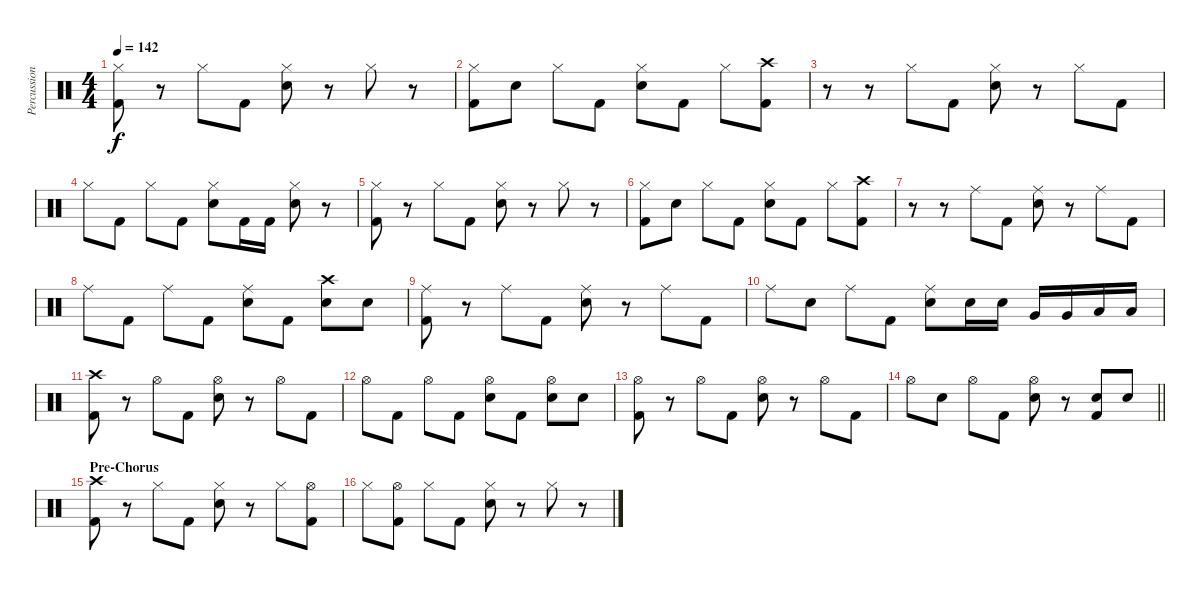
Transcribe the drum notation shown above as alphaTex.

\track ("Percussion" "Percussion") {instrument percussion}
\staff {score}
\articulation defaults
\ts (4 4)
\tempo 142
\clef neutral
\ks c
("Hi-Hat (closed)" "Kick (hit) 2").8{dy f} r.8 "Hi-Hat (closed)".8 "Kick (hit) 2".8 ("Hi-Hat (closed)" "Snare (hit) 2").8 r.8 "Hi-Hat (closed)".8 r.8 |
("Hi-Hat (closed)" "Kick (hit) 2").8 "Snare (hit) 2".8 "Hi-Hat (closed)".8 "Kick (hit) 2".8 ("Hi-Hat (closed)" "Snare (hit) 2").8 "Kick (hit) 2".8 "Hi-Hat (closed)".8 ("Crash high (hit)" "Kick (hit) 2").8 |
r.8 r.8 "Hi-Hat (closed)".8 "Kick (hit) 2".8 ("Hi-Hat (closed)" "Snare (hit) 2").8 r.8 "Hi-Hat (closed)".8 "Kick (hit) 2".8 |
"Hi-Hat (closed)".8 "Kick (hit) 2".8 "Hi-Hat (closed)".8 "Kick (hit) 2".8 ("Hi-Hat (closed)" "Snare (hit) 2").8 "Kick (hit) 2".16 "Kick (hit) 2".16 ("Hi-Hat (closed)" "Snare (hit) 2").8 r.8 |
("Hi-Hat (closed)" "Kick (hit) 2").8 r.8 "Hi-Hat (closed)".8 "Kick (hit) 2".8 ("Hi-Hat (closed)" "Snare (hit) 2").8 r.8 "Hi-Hat (closed)".8 r.8 |
("Hi-Hat (closed)" "Kick (hit) 2").8 "Snare (hit) 2".8 "Hi-Hat (closed)".8 "Kick (hit) 2".8 ("Hi-Hat (closed)" "Snare (hit) 2").8 "Kick (hit) 2".8 "Hi-Hat (closed)".8 ("Crash high (hit)" "Kick (hit) 2").8 |
r.8 r.8 "Ride (middle)".8 "Kick (hit) 2".8 ("Ride (middle)" "Snare (hit) 2").8 r.8 "Ride (middle)".8 "Kick (hit) 2".8 |
"Ride (middle)".8 "Kick (hit) 2".8 "Ride (middle)".8 "Kick (hit) 2".8 ("Ride (middle)" "Snare (hit) 2").8 "Kick (hit) 2".8 ("Crash high (hit)" "Snare (hit) 2").8 "Snare (hit) 2".8 |
("Ride (middle)" "Kick (hit) 2").8 r.8 "Ride (middle)".8 "Kick (hit) 2".8 ("Ride (middle)" "Snare (hit) 2").8 r.8 "Ride (middle)".8 "Kick (hit) 2".8 |
"Ride (middle)".8 "Snare (hit) 2".8 "Ride (middle)".8 "Kick (hit) 2".8 ("Ride (middle)" "Snare (hit) 2").8 "Snare (hit) 2".16 "Snare (hit) 2".16 "Very Low Tom (hit)".16 "Very Low Tom (hit)".16 "Low Floor Tom (hit)".16 "Low Floor Tom (hit)".16 |
("Crash high (hit)" "Kick (hit) 2").8 r.8 "Hi-Hat (open)".8 "Kick (hit) 2".8 ("Hi-Hat (open)" "Snare (hit) 2").8 r.8 "Hi-Hat (open)".8 "Kick (hit) 2".8 |
"Hi-Hat (open)".8 "Kick (hit) 2".8 "Hi-Hat (open)".8 "Kick (hit) 2".8 ("Hi-Hat (open)" "Snare (hit) 2").8 "Kick (hit) 2".8 ("Hi-Hat (open)" "Snare (hit) 2").8 "Snare (hit) 2".8 |
("Hi-Hat (open)" "Kick (hit) 2").8 r.8 "Hi-Hat (open)".8 "Kick (hit) 2".8 ("Hi-Hat (open)" "Snare (hit) 2").8 r.8 "Hi-Hat (open)".8 "Kick (hit) 2".8 |
\barLineRight lightlight "Hi-Hat (open)".8 "Snare (hit) 2".8 "Hi-Hat (open)".8 "Kick (hit) 2".8
("Hi-Hat (open)" "Snare (hit) 2").8 r.8 ("Snare (hit) 2" "Kick (hit) 2").8 "Snare (hit) 2".8 |
\section ("" "Pre-Chorus")
("Crash high (hit)" "Kick (hit) 2").8 r.8 "Hi-Hat (closed)".8 "Kick (hit) 2".8 ("Hi-Hat (closed)" "Snare (hit) 2").8 r.8 "Hi-Hat (closed)".8 ("Hi-Hat (open)" "Kick (hit) 2").8 |
"Hi-Hat (closed)".8 ("Hi-Hat (open)" "Kick (hit) 2").8 "Hi-Hat (closed)".8 "Kick (hit) 2".8 ("Hi-Hat (closed)" "Snare (hit) 2").8 r.8 "Hi-Hat (closed)".8 r.8
